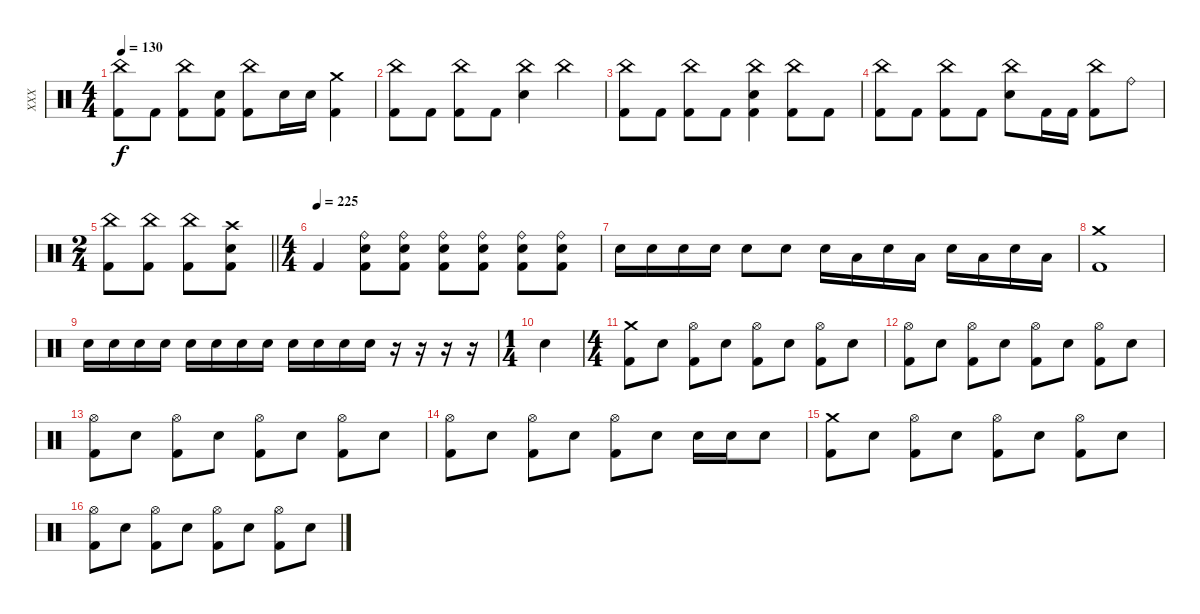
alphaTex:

\track ("XXX" "XXX") {instrument percussion}
\staff {score}
\articulation defaults
\ts (4 4)
\tempo 130
\clef neutral
\ks c
("China (hit)" "Kick (hit) 2").8{dy f} "Kick (hit) 2".8 ("China (hit)" "Kick (hit) 2").8 ("Electric Snare (hit)" "Kick (hit) 2").8 ("China (hit)" "Kick (hit) 2").8 "Electric Snare (hit)".16 "Electric Snare (hit)".16 ("Crash medium (hit)" "Kick (hit) 2").4 |
("China (hit)" "Kick (hit) 2").8 "Kick (hit) 2".8 ("China (hit)" "Kick (hit) 2").8 "Kick (hit) 2".8 ("China (hit)" "Electric Snare (hit)").4 "China (hit)".4 |
("China (hit)" "Kick (hit) 2").8 "Kick (hit) 2".8 ("China (hit)" "Kick (hit) 2").8 "Kick (hit) 2".8 ("China (hit)" "Kick (hit) 2" "Electric Snare (hit)").4 ("China (hit)" "Kick (hit) 2").8 "Kick (hit) 2".8 |
("China (hit)" "Kick (hit) 2").8 "Kick (hit) 2".8 ("China (hit)" "Kick (hit) 2").8 "Kick (hit) 2".8 ("China (hit)" "Electric Snare (hit)").8 "Kick (hit) 2".16 "Kick (hit) 2".16 ("China (hit)" "Kick (hit) 2").8 "Ride (bell)".8 |
\ts (2 4)
\barLineRight lightlight
("China (hit)" "Kick (hit) 2").8 ("China (hit)" "Kick (hit) 2").8 ("China (hit)" "Kick (hit) 2").8 ("Crash high (hit)" "Electric Snare (hit)" "Kick (hit) 2").8 |
\ts (4 4)
\tempo (225)
"Kick (hit) 2".4 ("Ride (bell)" "Electric Snare (hit)" "Kick (hit) 2").8 ("Ride (bell)" "Electric Snare (hit)" "Kick (hit) 2").8 ("Ride (bell)" "Electric Snare (hit)" "Kick (hit) 2").8 ("Ride (bell)" "Electric Snare (hit)" "Kick (hit) 2").8 ("Ride (bell)" "Electric Snare (hit)" "Kick (hit) 2").8 ("Ride (bell)" "Electric Snare (hit)" "Kick (hit) 2").8 |
"Electric Snare (hit)".16 "Electric Snare (hit)".16 "Electric Snare (hit)".16 "Electric Snare (hit)".16 "Electric Snare (hit)".8 "Electric Snare (hit)".8 "Electric Snare (hit)".16 "Low Tom (hit)".16 "Electric Snare (hit)".16 "Low Tom (hit)".16 "Electric Snare (hit)".16 "Low Tom (hit)".16 "Electric Snare (hit)".16 "Low Tom (hit)".16 |
("Crash medium (hit)" "Kick (hit) 2").1 |
"Electric Snare (hit)".16 "Electric Snare (hit)".16 "Electric Snare (hit)".16 "Electric Snare (hit)".16 "Electric Snare (hit)".16 "Electric Snare (hit)".16 "Electric Snare (hit)".16 "Electric Snare (hit)".16 "Electric Snare (hit)".16 "Electric Snare (hit)".16 "Electric Snare (hit)".16 "Electric Snare (hit)".16 r.16 r.16 r.16 r.16 |
\ts (1 4)
"Electric Snare (hit)".4 |
\ts (4 4)
("Crash medium (hit)" "Kick (hit) 2").8 "Electric Snare (hit)".8 ("Hi-Hat (open)" "Kick (hit) 2").8 "Electric Snare (hit)".8 ("Hi-Hat (open)" "Kick (hit) 2").8 "Electric Snare (hit)".8 ("Hi-Hat (open)" "Kick (hit) 2").8 "Electric Snare (hit)".8 |
("Hi-Hat (open)" "Kick (hit) 2").8 "Electric Snare (hit)".8 ("Hi-Hat (open)" "Kick (hit) 2").8 "Electric Snare (hit)".8 ("Hi-Hat (open)" "Kick (hit) 2").8 "Electric Snare (hit)".8 ("Hi-Hat (open)" "Kick (hit) 2").8 "Electric Snare (hit)".8 |
("Hi-Hat (open)" "Kick (hit) 2").8 "Electric Snare (hit)".8 ("Hi-Hat (open)" "Kick (hit) 2").8 "Electric Snare (hit)".8 ("Hi-Hat (open)" "Kick (hit) 2").8 "Electric Snare (hit)".8 ("Hi-Hat (open)" "Kick (hit) 2").8 "Electric Snare (hit)".8 |
("Hi-Hat (open)" "Kick (hit) 2").8 "Electric Snare (hit)".8 ("Hi-Hat (open)" "Kick (hit) 2").8 "Electric Snare (hit)".8 ("Hi-Hat (open)" "Kick (hit) 2").8 "Electric Snare (hit)".8 "Electric Snare (hit)".16 "Electric Snare (hit)".16 "Electric Snare (hit)".8 |
("Crash medium (hit)" "Kick (hit) 2").8 "Electric Snare (hit)".8 ("Hi-Hat (open)" "Kick (hit) 2").8 "Electric Snare (hit)".8 ("Hi-Hat (open)" "Kick (hit) 2").8 "Electric Snare (hit)".8 ("Hi-Hat (open)" "Kick (hit) 2").8 "Electric Snare (hit)".8 |
("Hi-Hat (open)" "Kick (hit) 2").8 "Electric Snare (hit)".8 ("Hi-Hat (open)" "Kick (hit) 2").8 "Electric Snare (hit)".8 ("Hi-Hat (open)" "Kick (hit) 2").8 "Electric Snare (hit)".8 ("Hi-Hat (open)" "Kick (hit) 2").8 "Electric Snare (hit)".8
